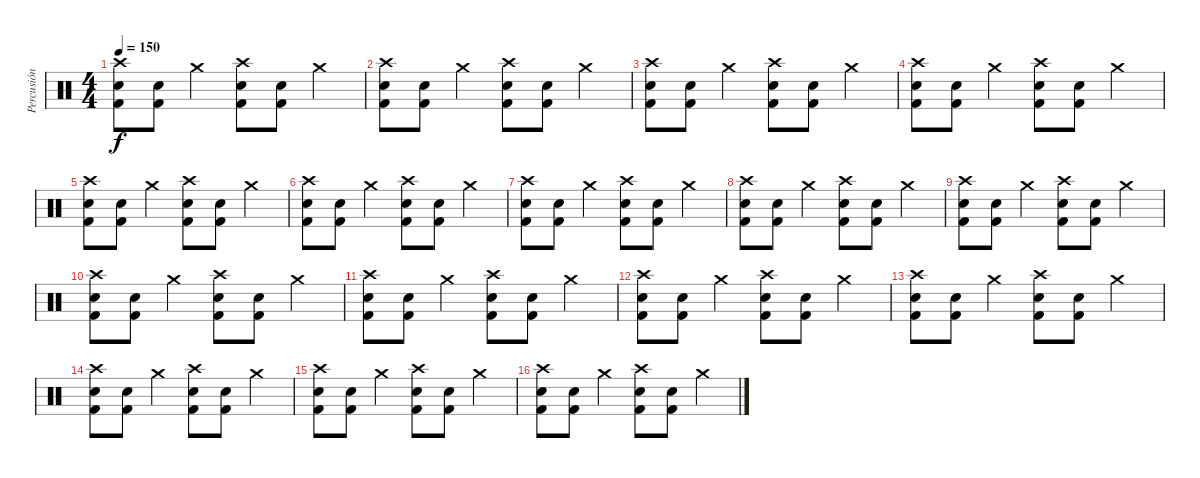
\track ("Percusión" "Percusión") {instrument percussion}
\staff {score}
\articulation defaults
\ts (4 4)
\tempo 150
\clef neutral
\ks c
("Crash high (hit)" "Kick (hit) 2" "Electric Snare (hit)").8{dy f} ("Kick (hit) 2" "Electric Snare (hit)").8 "Crash medium (hit)".4 ("Crash high (hit)" "Kick (hit) 2" "Electric Snare (hit)").8 ("Kick (hit) 2" "Electric Snare (hit)").8 "Crash medium (hit)".4 |
("Crash high (hit)" "Kick (hit) 2" "Electric Snare (hit)").8 ("Kick (hit) 2" "Electric Snare (hit)").8 "Crash medium (hit)".4 ("Crash high (hit)" "Kick (hit) 2" "Electric Snare (hit)").8 ("Kick (hit) 2" "Electric Snare (hit)").8 "Crash medium (hit)".4 |
("Crash high (hit)" "Kick (hit) 2" "Electric Snare (hit)").8 ("Kick (hit) 2" "Electric Snare (hit)").8 "Crash medium (hit)".4 ("Crash high (hit)" "Kick (hit) 2" "Electric Snare (hit)").8 ("Kick (hit) 2" "Electric Snare (hit)").8 "Crash medium (hit)".4 |
("Crash high (hit)" "Kick (hit) 2" "Electric Snare (hit)").8 ("Kick (hit) 2" "Electric Snare (hit)").8 "Crash medium (hit)".4 ("Crash high (hit)" "Kick (hit) 2" "Electric Snare (hit)").8 ("Kick (hit) 2" "Electric Snare (hit)").8 "Crash medium (hit)".4 |
("Crash high (hit)" "Kick (hit) 2" "Electric Snare (hit)").8 ("Kick (hit) 2" "Electric Snare (hit)").8 "Crash medium (hit)".4 ("Crash high (hit)" "Kick (hit) 2" "Electric Snare (hit)").8 ("Kick (hit) 2" "Electric Snare (hit)").8 "Crash medium (hit)".4 |
("Crash high (hit)" "Kick (hit) 2" "Electric Snare (hit)").8 ("Kick (hit) 2" "Electric Snare (hit)").8 "Crash medium (hit)".4 ("Crash high (hit)" "Kick (hit) 2" "Electric Snare (hit)").8 ("Kick (hit) 2" "Electric Snare (hit)").8 "Crash medium (hit)".4 |
("Crash high (hit)" "Kick (hit) 2" "Electric Snare (hit)").8 ("Kick (hit) 2" "Electric Snare (hit)").8 "Crash medium (hit)".4 ("Crash high (hit)" "Kick (hit) 2" "Electric Snare (hit)").8 ("Kick (hit) 2" "Electric Snare (hit)").8 "Crash medium (hit)".4 |
("Crash high (hit)" "Kick (hit) 2" "Electric Snare (hit)").8 ("Kick (hit) 2" "Electric Snare (hit)").8 "Crash medium (hit)".4 ("Crash high (hit)" "Kick (hit) 2" "Electric Snare (hit)").8 ("Kick (hit) 2" "Electric Snare (hit)").8 "Crash medium (hit)".4 |
("Crash high (hit)" "Kick (hit) 2" "Electric Snare (hit)").8 ("Kick (hit) 2" "Electric Snare (hit)").8 "Crash medium (hit)".4 ("Crash high (hit)" "Kick (hit) 2" "Electric Snare (hit)").8 ("Kick (hit) 2" "Electric Snare (hit)").8 "Crash medium (hit)".4 |
("Crash high (hit)" "Kick (hit) 2" "Electric Snare (hit)").8 ("Kick (hit) 2" "Electric Snare (hit)").8 "Crash medium (hit)".4 ("Crash high (hit)" "Kick (hit) 2" "Electric Snare (hit)").8 ("Kick (hit) 2" "Electric Snare (hit)").8 "Crash medium (hit)".4 |
("Crash high (hit)" "Kick (hit) 2" "Electric Snare (hit)").8 ("Kick (hit) 2" "Electric Snare (hit)").8 "Crash medium (hit)".4 ("Crash high (hit)" "Kick (hit) 2" "Electric Snare (hit)").8 ("Kick (hit) 2" "Electric Snare (hit)").8 "Crash medium (hit)".4 |
("Crash high (hit)" "Kick (hit) 2" "Electric Snare (hit)").8 ("Kick (hit) 2" "Electric Snare (hit)").8 "Crash medium (hit)".4 ("Crash high (hit)" "Kick (hit) 2" "Electric Snare (hit)").8 ("Kick (hit) 2" "Electric Snare (hit)").8 "Crash medium (hit)".4 |
("Crash high (hit)" "Kick (hit) 2" "Electric Snare (hit)").8 ("Kick (hit) 2" "Electric Snare (hit)").8 "Crash medium (hit)".4 ("Crash high (hit)" "Kick (hit) 2" "Electric Snare (hit)").8 ("Kick (hit) 2" "Electric Snare (hit)").8 "Crash medium (hit)".4 |
("Crash high (hit)" "Kick (hit) 2" "Electric Snare (hit)").8 ("Kick (hit) 2" "Electric Snare (hit)").8 "Crash medium (hit)".4 ("Crash high (hit)" "Kick (hit) 2" "Electric Snare (hit)").8 ("Kick (hit) 2" "Electric Snare (hit)").8 "Crash medium (hit)".4 |
("Crash high (hit)" "Kick (hit) 2" "Electric Snare (hit)").8 ("Kick (hit) 2" "Electric Snare (hit)").8 "Crash medium (hit)".4 ("Crash high (hit)" "Kick (hit) 2" "Electric Snare (hit)").8 ("Kick (hit) 2" "Electric Snare (hit)").8 "Crash medium (hit)".4 |
("Crash high (hit)" "Kick (hit) 2" "Electric Snare (hit)").8 ("Kick (hit) 2" "Electric Snare (hit)").8 "Crash medium (hit)".4 ("Crash high (hit)" "Kick (hit) 2" "Electric Snare (hit)").8 ("Kick (hit) 2" "Electric Snare (hit)").8 "Crash medium (hit)".4
